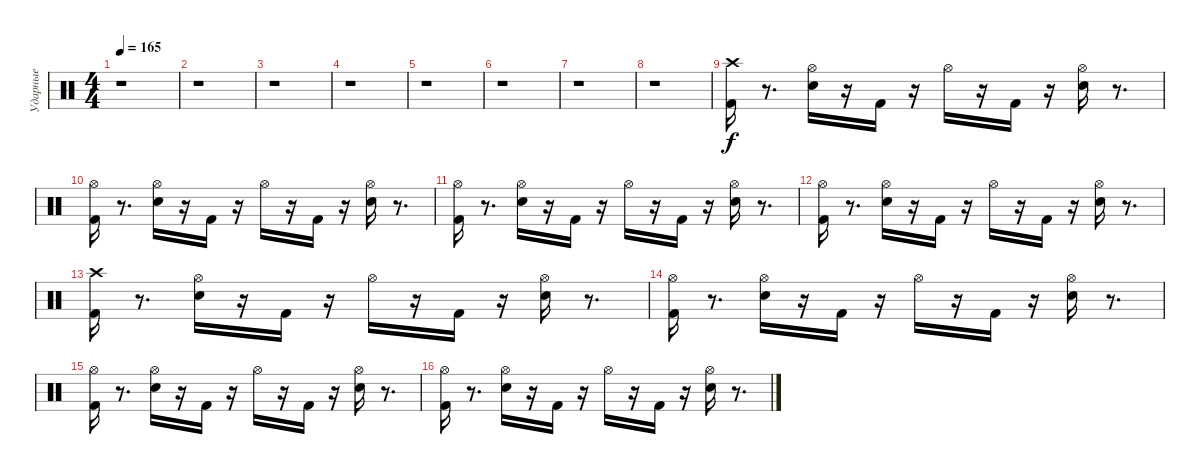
\track ("Ударные" "Ударные") {instrument percussion}
\staff {score}
\articulation defaults
\ts (4 4)
\tempo 165
\clef neutral
\ks c
r.1{dy f} |
r.1 |
r.1 |
r.1 |
r.1 |
r.1 |
r.1 |
r.1 |
("Crash high (hit)" "Kick (hit) 2").16 r.8{d} ("Electric Snare (hit)" "Hi-Hat (open)").16 r.16 "Kick (hit) 2".16 r.16 "Hi-Hat (open)".16 r.16 "Kick (hit) 2".16 r.16 ("Electric Snare (hit)" "Hi-Hat (open)").16 r.8{d} |
("Hi-Hat (open)" "Kick (hit) 2").16 r.8{d} ("Electric Snare (hit)" "Hi-Hat (open)").16 r.16 "Kick (hit) 2".16 r.16 "Hi-Hat (open)".16 r.16 "Kick (hit) 2".16 r.16 ("Electric Snare (hit)" "Hi-Hat (open)").16 r.8{d} |
("Kick (hit) 2" "Hi-Hat (open)").16 r.8{d} ("Hi-Hat (open)" "Electric Snare (hit)").16 r.16 "Kick (hit) 2".16 r.16 "Hi-Hat (open)".16 r.16 "Kick (hit) 2".16 r.16 ("Electric Snare (hit)" "Hi-Hat (open)").16 r.8{d} |
("Kick (hit) 2" "Hi-Hat (open)").16 r.8{d} ("Hi-Hat (open)" "Electric Snare (hit)").16 r.16 "Kick (hit) 2".16 r.16 "Hi-Hat (open)".16 r.16 "Kick (hit) 2".16 r.16 ("Electric Snare (hit)" "Hi-Hat (open)").16 r.8{d} |
("Kick (hit) 2" "Crash high (hit)").16 r.8{d} ("Electric Snare (hit)" "Hi-Hat (open)").16 r.16 "Kick (hit) 2".16 r.16 "Hi-Hat (open)".16 r.16 "Kick (hit) 2".16 r.16 ("Electric Snare (hit)" "Hi-Hat (open)").16 r.8{d} |
("Kick (hit) 2" "Hi-Hat (open)").16 r.8{d} ("Electric Snare (hit)" "Hi-Hat (open)").16 r.16 "Kick (hit) 2".16 r.16 "Hi-Hat (open)".16 r.16 "Kick (hit) 2".16 r.16 ("Electric Snare (hit)" "Hi-Hat (open)").16 r.8{d} |
("Kick (hit) 2" "Hi-Hat (open)").16 r.8{d} ("Hi-Hat (open)" "Electric Snare (hit)").16 r.16 "Kick (hit) 2".16 r.16 "Hi-Hat (open)".16 r.16 "Kick (hit) 2".16 r.16 ("Electric Snare (hit)" "Hi-Hat (open)").16 r.8{d} |
("Kick (hit) 2" "Hi-Hat (open)").16 r.8{d} ("Hi-Hat (open)" "Electric Snare (hit)").16 r.16 "Kick (hit) 2".16 r.16 "Hi-Hat (open)".16 r.16 "Kick (hit) 2".16 r.16 ("Electric Snare (hit)" "Hi-Hat (open)").16 r.8{d}
